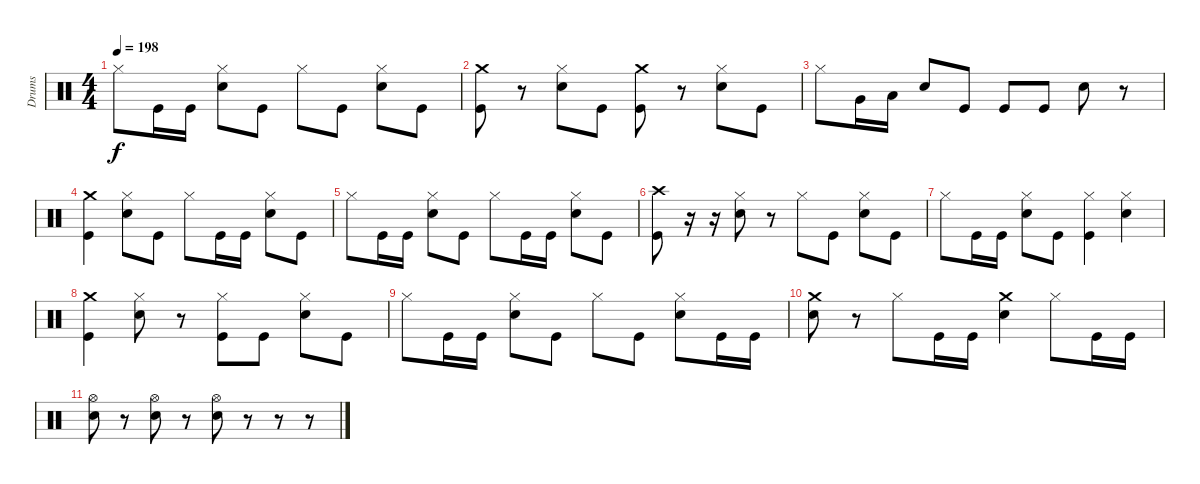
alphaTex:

\track ("Drums" "Drums") {instrument percussion}
\staff {score}
\articulation defaults
\ts (4 4)
\tempo 198
\clef neutral
\ks c "Hi-Hat (closed)".8{dy f} "Kick (hit)".16 "Kick (hit)".16
("Hi-Hat (closed)" "Electric Snare (hit)").8 "Kick (hit)".8 "Hi-Hat (closed)".8 "Kick (hit)".8 ("Hi-Hat (closed)" "Electric Snare (hit)").8 "Kick (hit)".8 |
("Crash medium (hit)" "Kick (hit)").8 r.8 ("Hi-Hat (closed)" "Electric Snare (hit)").8 "Kick (hit)".8 ("Crash medium (hit)" "Kick (hit)").8 r.8 ("Hi-Hat (closed)" "Electric Snare (hit)").8 "Kick (hit)".8 |
"Hi-Hat (closed)".8 "Very Low Tom (hit)".16 "Low Floor Tom (hit)".16 "Electric Snare (hit)".8 "Kick (hit)".8 "Kick (hit)".8 "Kick (hit)".8 "Electric Snare (hit)".8 r.8 |
("Crash medium (hit)" "Kick (hit)").4 ("Hi-Hat (closed)" "Electric Snare (hit)").8 "Kick (hit)".8 "Hi-Hat (closed)".8 "Kick (hit)".16 "Kick (hit)".16 ("Hi-Hat (closed)" "Electric Snare (hit)").8 "Kick (hit)".8 |
"Hi-Hat (closed)".8 "Kick (hit)".16 "Kick (hit)".16 ("Hi-Hat (closed)" "Electric Snare (hit)").8 "Kick (hit)".8 "Hi-Hat (closed)".8 "Kick (hit)".16 "Kick (hit)".16 ("Hi-Hat (closed)" "Electric Snare (hit)").8 "Kick (hit)".8 |
("Crash high (hit)" "Kick (hit)").8 r.16 r.16 ("Hi-Hat (closed)" "Electric Snare (hit)").8 r.8 "Hi-Hat (closed)".8 "Kick (hit)".8 ("Hi-Hat (closed)" "Electric Snare (hit)").8 "Kick (hit)".8 |
"Hi-Hat (closed)".8 "Kick (hit)".16 "Kick (hit)".16 ("Hi-Hat (closed)" "Electric Snare (hit)").8 "Kick (hit)".8 ("Hi-Hat (closed)" "Kick (hit)").4 ("Hi-Hat (closed)" "Electric Snare (hit)").4 |
("Crash medium (hit)" "Kick (hit)").4 ("Hi-Hat (closed)" "Electric Snare (hit)").8 r.8 ("Hi-Hat (closed)" "Kick (hit)").8 "Kick (hit)".8 ("Hi-Hat (closed)" "Electric Snare (hit)").8 "Kick (hit)".8 |
"Hi-Hat (closed)".8 "Kick (hit)".16 "Kick (hit)".16 ("Hi-Hat (closed)" "Electric Snare (hit)").8 "Kick (hit)".8 "Hi-Hat (closed)".8 "Kick (hit)".8 ("Hi-Hat (closed)" "Electric Snare (hit)").8 "Kick (hit)".16 "Kick (hit)".16 |
("Crash medium (hit)" "Electric Snare (hit)").8 r.8 "Hi-Hat (closed)".8 "Kick (hit)".16 "Kick (hit)".16 ("Crash medium (hit)" "Electric Snare (hit)").4 "Hi-Hat (closed)".8 "Kick (hit)".16 "Kick (hit)".16 |
("Hi-Hat (open)" "Electric Snare (hit)").8 r.8 ("Hi-Hat (open)" "Electric Snare (hit)").8 r.8 ("Hi-Hat (open)" "Electric Snare (hit)").8 r.8 r.8 r.8
